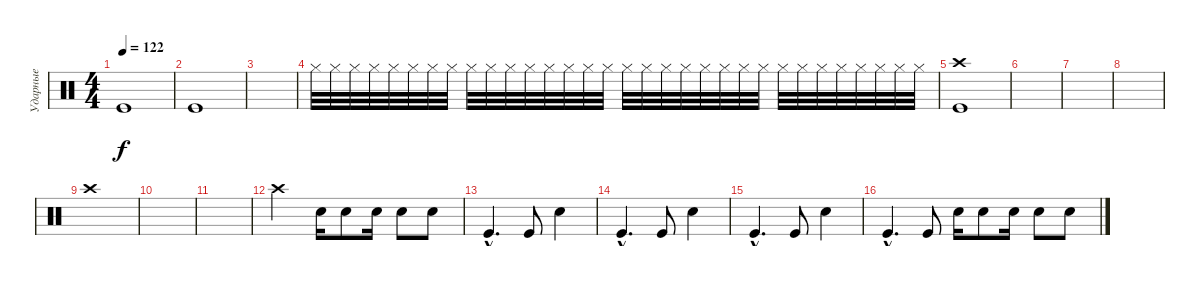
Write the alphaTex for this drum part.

\track ("Ударные" "Ударные") {instrument percussion}
\staff {score}
\articulation defaults
\ts (4 4)
\tempo 122
\clef neutral
\ks c "Kick (hit)".1{dy f}
|
"Kick (hit)".1 |
|
"Hi-Hat (closed)".32{volume 0} "Hi-Hat (closed)".32 "Hi-Hat (closed)".32 "Hi-Hat (closed)".32 "Hi-Hat (closed)".32{volume 1} "Hi-Hat (closed)".32 "Hi-Hat (closed)".32{volume 2} "Hi-Hat (closed)".32 "Hi-Hat (closed)".32{volume 3} "Hi-Hat (closed)".32 "Hi-Hat (closed)".32{volume 4} "Hi-Hat (closed)".32 "Hi-Hat (closed)".32{volume 5} "Hi-Hat (closed)".32 "Hi-Hat (closed)".32{volume 6} "Hi-Hat (closed)".32 "Hi-Hat (closed)".32{volume 7} "Hi-Hat (closed)".32 "Hi-Hat (closed)".32{volume 8} "Hi-Hat (closed)".32 "Hi-Hat (closed)".32{volume 9} "Hi-Hat (closed)".32 "Hi-Hat (closed)".32{volume 10} "Hi-Hat (closed)".32 "Hi-Hat (closed)".32{volume 11} "Hi-Hat (closed)".32 "Hi-Hat (closed)".32{volume 12} "Hi-Hat (closed)".32 "Hi-Hat (closed)".32{volume 13} "Hi-Hat (closed)".32 "Hi-Hat (closed)".32 "Hi-Hat (closed)".32 |
("Crash high (hit)" "Kick (hit)").1 |
|
|
|
"Crash high (hit)".1 |
|
|
"Crash high (hit)".2 "Electric Snare (hit)".16 "Electric Snare (hit)".8 "Electric Snare (hit)".16 "Electric Snare (hit)".8 "Electric Snare (hit)".8 |
"Kick (hit)"{hac}.4{d} "Kick (hit)".8 "Electric Snare (hit)".4 |
"Kick (hit)"{hac}.4{d} "Kick (hit)".8 "Electric Snare (hit)".4 |
"Kick (hit)"{hac}.4{d} "Kick (hit)".8 "Electric Snare (hit)".4 |
"Kick (hit)"{hac}.4{d} "Kick (hit)".8 "Electric Snare (hit)".16 "Electric Snare (hit)".8 "Electric Snare (hit)".16 "Electric Snare (hit)".8 "Electric Snare (hit)".8
